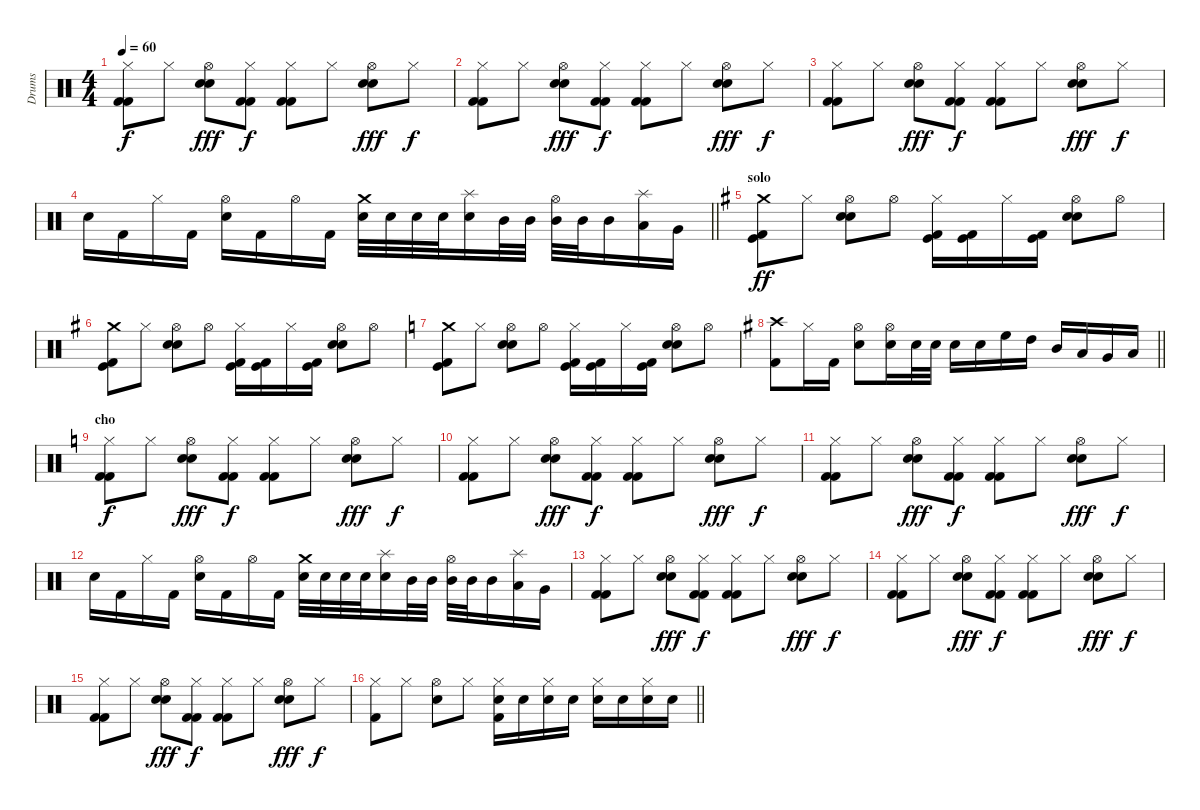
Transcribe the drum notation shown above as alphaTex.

\track ("Drums" "Drums") {instrument percussion}
\staff {score}
\articulation defaults
\ts (4 4)
\tempo 60
\clef neutral
\ks c
("Hi-Hat (closed)" "Kick (hit) 2" "Kick (hit) 2").8{dy f} "Hi-Hat (closed)".8 ("Hi-Hat (open)" "Electric Snare (hit)" "Electric Snare (hit)").8{dy fff} ("Hi-Hat (closed)" "Kick (hit) 2" "Kick (hit) 2").8{dy f} ("Hi-Hat (closed)" "Kick (hit) 2" "Kick (hit) 2").8 "Hi-Hat (closed)".8 ("Hi-Hat (open)" "Electric Snare (hit)" "Electric Snare (hit)").8{dy fff} "Hi-Hat (closed)".8{dy f} |
("Hi-Hat (closed)" "Kick (hit) 2" "Kick (hit) 2").8 "Hi-Hat (closed)".8 ("Hi-Hat (open)" "Electric Snare (hit)" "Electric Snare (hit)").8{dy fff} ("Hi-Hat (closed)" "Kick (hit) 2" "Kick (hit) 2").8{dy f} ("Hi-Hat (closed)" "Kick (hit) 2" "Kick (hit) 2").8 "Hi-Hat (closed)".8 ("Hi-Hat (open)" "Electric Snare (hit)" "Electric Snare (hit)").8{dy fff} "Hi-Hat (closed)".8{dy f} |
("Hi-Hat (closed)" "Kick (hit) 2" "Kick (hit) 2").8 "Hi-Hat (closed)".8 ("Hi-Hat (open)" "Electric Snare (hit)" "Electric Snare (hit)").8{dy fff} ("Hi-Hat (closed)" "Kick (hit) 2" "Kick (hit) 2").8{dy f} ("Hi-Hat (closed)" "Kick (hit) 2" "Kick (hit) 2").8 "Hi-Hat (closed)".8 ("Hi-Hat (open)" "Electric Snare (hit)" "Electric Snare (hit)").8{dy fff} "Hi-Hat (closed)".8{dy f} |
\barLineRight lightlight "Snare (hit) 2".16 "Kick (hit) 2".16 "Hi-Hat (closed)".16 "Kick (hit) 2".16
("Hi-Hat (open)" "Snare (hit) 2").16 "Kick (hit) 2".16 "Hi-Hat (open)".16 "Kick (hit) 2".16 ("Crash medium (hit)" "Snare (hit) 2").32 "Snare (hit) 2".32 "Snare (hit) 2".32 "Snare (hit) 2".32 ("Splash (hit)" "Snare (hit) 2").16 "Mid Tom (hit)".32 "Mid Tom (hit)".32 ("Hi-Hat (open)" "Mid Tom (hit)").32 "Mid Tom (hit)".32 "Mid Tom (hit)".16 ("Splash (hit)" "Low Tom (hit)").16 "Very Low Tom (hit)".16 |
\section ("" "solo")
\ks eminor
("Crash medium (hit)" "Kick (hit) 2" "Kick (hit)").8{dy ff} "Hi-Hat (closed)".8 ("Hi-Hat (open)" "Snare (hit) 2" "Electric Snare (hit)").8 "Hi-Hat (open)".8 ("Hi-Hat (closed)" "Kick (hit)" "Kick (hit) 2").16 ("Kick (hit)" "Kick (hit) 2").16 "Hi-Hat (closed)".16 ("Kick (hit)" "Kick (hit) 2").16 ("Hi-Hat (open)" "Snare (hit) 2" "Electric Snare (hit)").8 "Hi-Hat (open)".8 |
("Crash medium (hit)" "Kick (hit) 2" "Kick (hit)").8 "Hi-Hat (closed)".8 ("Hi-Hat (open)" "Snare (hit) 2" "Electric Snare (hit)").8 "Hi-Hat (open)".8 ("Hi-Hat (closed)" "Kick (hit)" "Kick (hit) 2").16 ("Kick (hit)" "Kick (hit) 2").16 "Hi-Hat (closed)".16 ("Kick (hit)" "Kick (hit) 2").16 ("Hi-Hat (open)" "Snare (hit) 2" "Electric Snare (hit)").8 "Hi-Hat (open)".8 |
\ks c
("Crash medium (hit)" "Kick (hit) 2" "Kick (hit)").8 "Hi-Hat (closed)".8 ("Hi-Hat (open)" "Snare (hit) 2" "Electric Snare (hit)").8 "Hi-Hat (open)".8 ("Hi-Hat (closed)" "Kick (hit)" "Kick (hit) 2").16 ("Kick (hit)" "Kick (hit) 2").16 "Hi-Hat (closed)".16 ("Kick (hit)" "Kick (hit) 2").16 ("Hi-Hat (open)" "Snare (hit) 2" "Electric Snare (hit)").8 "Hi-Hat (open)".8 |
\barLineRight lightlight
\ks eminor
("Kick (hit) 2" "Crash high (hit)").8 "Hi-Hat (closed)".16 "Kick (hit) 2".16 ("Snare (hit) 2" "Hi-Hat (open)").8 ("Snare (hit) 2" "Hi-Hat (open)").16 "Snare (hit) 2".32 "Snare (hit) 2".32 "Snare (hit) 2".16 "Snare (hit) 2".16 "High Floor Tom (hit)".16 "High Tom (hit)".16 "Mid Tom (hit)".16 "Low Tom (hit)".16 "Very Low Tom (hit)".16 "Low Floor Tom (hit)".16 |
\section ("" "cho")
\ks c
("Hi-Hat (closed)" "Kick (hit) 2" "Kick (hit) 2").8{dy f} "Hi-Hat (closed)".8 ("Hi-Hat (open)" "Electric Snare (hit)" "Electric Snare (hit)").8{dy fff} ("Hi-Hat (closed)" "Kick (hit) 2" "Kick (hit) 2").8{dy f} ("Hi-Hat (closed)" "Kick (hit) 2" "Kick (hit) 2").8 "Hi-Hat (closed)".8 ("Hi-Hat (open)" "Electric Snare (hit)" "Electric Snare (hit)").8{dy fff} "Hi-Hat (closed)".8{dy f} |
("Hi-Hat (closed)" "Kick (hit) 2" "Kick (hit) 2").8 "Hi-Hat (closed)".8 ("Hi-Hat (open)" "Electric Snare (hit)" "Electric Snare (hit)").8{dy fff} ("Hi-Hat (closed)" "Kick (hit) 2" "Kick (hit) 2").8{dy f} ("Hi-Hat (closed)" "Kick (hit) 2" "Kick (hit) 2").8 "Hi-Hat (closed)".8 ("Hi-Hat (open)" "Electric Snare (hit)" "Electric Snare (hit)").8{dy fff} "Hi-Hat (closed)".8{dy f} |
("Hi-Hat (closed)" "Kick (hit) 2" "Kick (hit) 2").8 "Hi-Hat (closed)".8 ("Hi-Hat (open)" "Electric Snare (hit)" "Electric Snare (hit)").8{dy fff} ("Hi-Hat (closed)" "Kick (hit) 2" "Kick (hit) 2").8{dy f} ("Hi-Hat (closed)" "Kick (hit) 2" "Kick (hit) 2").8 "Hi-Hat (closed)".8 ("Hi-Hat (open)" "Electric Snare (hit)" "Electric Snare (hit)").8{dy fff} "Hi-Hat (closed)".8{dy f} |
"Snare (hit) 2".16 "Kick (hit) 2".16 "Hi-Hat (closed)".16 "Kick (hit) 2".16 ("Hi-Hat (open)" "Snare (hit) 2").16 "Kick (hit) 2".16 "Hi-Hat (open)".16 "Kick (hit) 2".16 ("Crash medium (hit)" "Snare (hit) 2").32 "Snare (hit) 2".32 "Snare (hit) 2".32 "Snare (hit) 2".32 ("Splash (hit)" "Snare (hit) 2").16 "Mid Tom (hit)".32 "Mid Tom (hit)".32 ("Hi-Hat (open)" "Mid Tom (hit)").32 "Mid Tom (hit)".32 "Mid Tom (hit)".16 ("Splash (hit)" "Low Tom (hit)").16 "Very Low Tom (hit)".16 |
("Hi-Hat (closed)" "Kick (hit) 2" "Kick (hit) 2").8 "Hi-Hat (closed)".8 ("Hi-Hat (open)" "Electric Snare (hit)" "Electric Snare (hit)").8{dy fff} ("Hi-Hat (closed)" "Kick (hit) 2" "Kick (hit) 2").8{dy f} ("Hi-Hat (closed)" "Kick (hit) 2" "Kick (hit) 2").8 "Hi-Hat (closed)".8 ("Hi-Hat (open)" "Electric Snare (hit)" "Electric Snare (hit)").8{dy fff} "Hi-Hat (closed)".8{dy f} |
("Hi-Hat (closed)" "Kick (hit) 2" "Kick (hit) 2").8 "Hi-Hat (closed)".8 ("Hi-Hat (open)" "Electric Snare (hit)" "Electric Snare (hit)").8{dy fff} ("Hi-Hat (closed)" "Kick (hit) 2" "Kick (hit) 2").8{dy f} ("Hi-Hat (closed)" "Kick (hit) 2" "Kick (hit) 2").8 "Hi-Hat (closed)".8 ("Hi-Hat (open)" "Electric Snare (hit)" "Electric Snare (hit)").8{dy fff} "Hi-Hat (closed)".8{dy f} |
("Hi-Hat (closed)" "Kick (hit) 2" "Kick (hit) 2").8 "Hi-Hat (closed)".8 ("Hi-Hat (open)" "Electric Snare (hit)" "Electric Snare (hit)").8{dy fff} ("Hi-Hat (closed)" "Kick (hit) 2" "Kick (hit) 2").8{dy f} ("Hi-Hat (closed)" "Kick (hit) 2" "Kick (hit) 2").8 "Hi-Hat (closed)".8 ("Hi-Hat (open)" "Electric Snare (hit)" "Electric Snare (hit)").8{dy fff} "Hi-Hat (closed)".8{dy f} |
\barLineRight lightlight
("Hi-Hat (closed)" "Kick (hit) 2").8 "Hi-Hat (closed)".8 ("Hi-Hat (open)" "Snare (hit) 2").8 "Hi-Hat (closed)".8 ("Hi-Hat (closed)" "Snare (hit) 2" "Kick (hit) 2").16 "Snare (hit) 2".16 ("Hi-Hat (closed)" "Snare (hit) 2").16 "Snare (hit) 2".16 ("Hi-Hat (closed)" "Snare (hit) 2").16 "Snare (hit) 2".16 ("Hi-Hat (closed)" "Snare (hit) 2").16 "Snare (hit) 2".16
